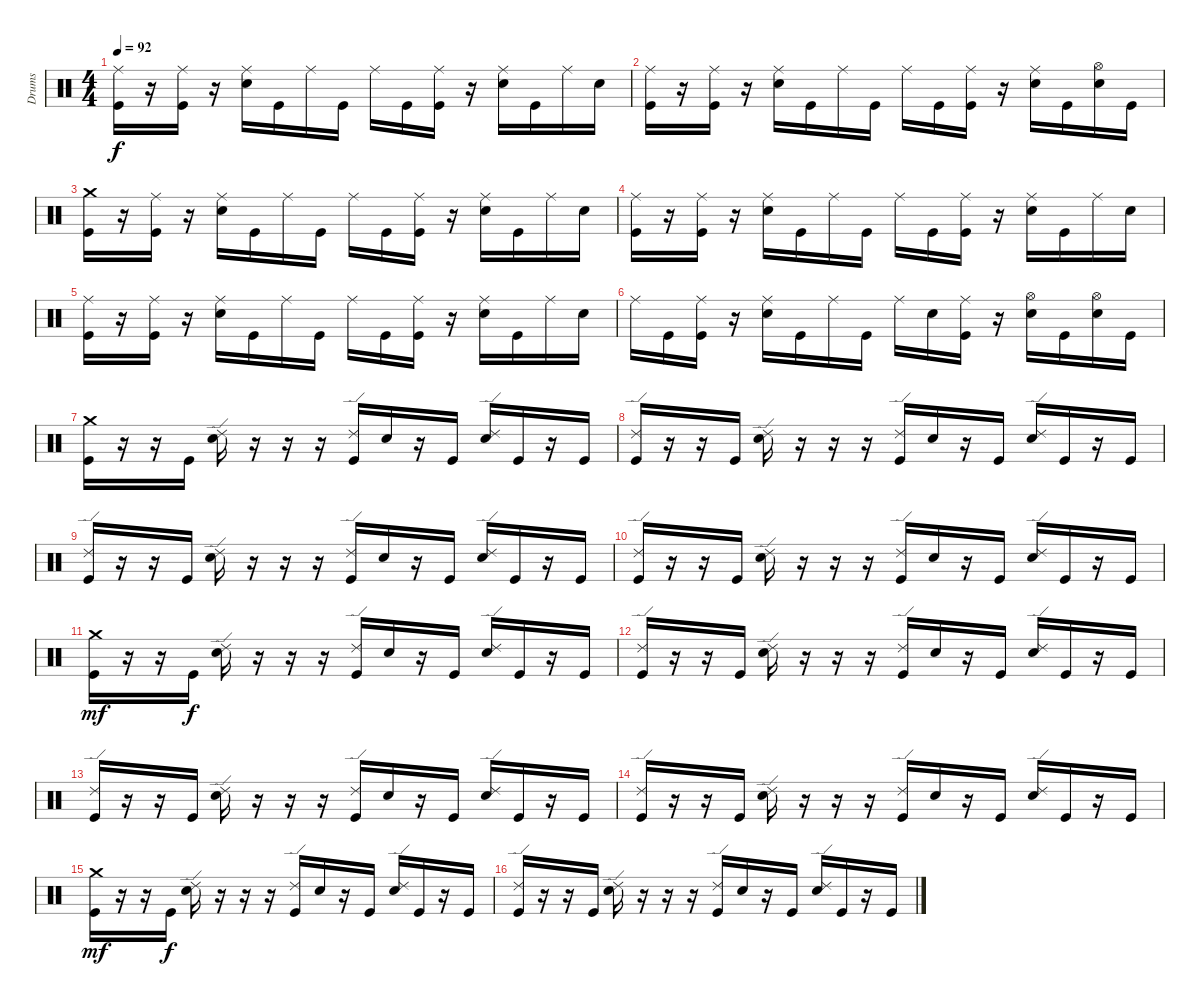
\track ("Drums" "Drums") {instrument percussion}
\staff {score}
\articulation defaults
\ts (4 4)
\tempo 92
\clef neutral
\ks c
("Ride (middle)" "Kick (hit)").16{dy f} r.16 ("Ride (middle)" "Kick (hit)").16 r.16 ("Ride (middle)" "Snare (hit) 2").16 "Kick (hit)".16 "Ride (middle)".16 "Kick (hit)".16 "Ride (middle)".16 "Kick (hit)".16 ("Ride (middle)" "Kick (hit)").16 r.16 ("Ride (middle)" "Snare (hit) 2").16 "Kick (hit)".16 "Ride (middle)".16 "Snare (hit) 2".16 |
("Ride (middle)" "Kick (hit)").16 r.16 ("Ride (middle)" "Kick (hit)").16 r.16 ("Ride (middle)" "Snare (hit) 2").16 "Kick (hit)".16 "Ride (middle)".16 "Kick (hit)".16 "Ride (middle)".16 "Kick (hit)".16 ("Ride (middle)" "Kick (hit)").16 r.16 ("Ride (middle)" "Snare (hit) 2").16 "Kick (hit)".16 ("Hi-Hat (open)" "Snare (hit) 2").16 "Kick (hit)".16 |
("Crash medium (hit)" "Kick (hit)").16 r.16 ("Ride (middle)" "Kick (hit)").16 r.16 ("Ride (middle)" "Snare (hit) 2").16 "Kick (hit)".16 "Ride (middle)".16 "Kick (hit)".16 "Ride (middle)".16 "Kick (hit)".16 ("Ride (middle)" "Kick (hit)").16 r.16 ("Ride (middle)" "Snare (hit) 2").16 "Kick (hit)".16 "Ride (middle)".16 "Snare (hit) 2".16 |
("Ride (middle)" "Kick (hit)").16 r.16 ("Ride (middle)" "Kick (hit)").16 r.16 ("Ride (middle)" "Snare (hit) 2").16 "Kick (hit)".16 "Ride (middle)".16 "Kick (hit)".16 "Ride (middle)".16 "Kick (hit)".16 ("Ride (middle)" "Kick (hit)").16 r.16 ("Ride (middle)" "Snare (hit) 2").16 "Kick (hit)".16 "Ride (middle)".16 "Snare (hit) 2".16 |
("Ride (middle)" "Kick (hit)").16 r.16 ("Ride (middle)" "Kick (hit)").16 r.16 ("Ride (middle)" "Snare (hit) 2").16 "Kick (hit)".16 "Ride (middle)".16 "Kick (hit)".16 "Ride (middle)".16 "Kick (hit)".16 ("Ride (middle)" "Kick (hit)").16 r.16 ("Ride (middle)" "Snare (hit) 2").16 "Kick (hit)".16 "Ride (middle)".16 "Snare (hit) 2".16 |
"Ride (middle)".16 "Kick (hit)".16 ("Ride (middle)" "Kick (hit)").16 r.16 ("Ride (middle)" "Snare (hit) 2").16 "Kick (hit)".16 "Ride (middle)".16 "Kick (hit)".16 "Ride (middle)".16 "Snare (hit) 2".16 ("Ride (middle)" "Kick (hit)").16 r.16 ("Hi-Hat (open)" "Snare (hit) 2").16 "Kick (hit)".16 ("Hi-Hat (open)" "Snare (hit) 2").16 "Kick (hit)".16 |
("Crash medium (hit)" "Kick (hit)").16 r.16 r.16 "Kick (hit)".16 ("Ride (edge) 2" "Snare (hit) 2").16 r.16 r.16 r.16 ("Ride (edge) 2" "Kick (hit)").16 "Snare (hit) 2".16 r.16 "Kick (hit)".16 ("Ride (edge) 2" "Snare (hit) 2").16 "Kick (hit)".16 r.16 "Kick (hit)".16 |
("Ride (edge) 2" "Kick (hit)").16 r.16 r.16 "Kick (hit)".16 ("Ride (edge) 2" "Snare (hit) 2").16 r.16 r.16 r.16 ("Ride (edge) 2" "Kick (hit)").16 "Snare (hit) 2".16 r.16 "Kick (hit)".16 ("Ride (edge) 2" "Snare (hit) 2").16 "Kick (hit)".16 r.16 "Kick (hit)".16 |
("Ride (edge) 2" "Kick (hit)").16 r.16 r.16 "Kick (hit)".16 ("Ride (edge) 2" "Snare (hit) 2").16 r.16 r.16 r.16 ("Ride (edge) 2" "Kick (hit)").16 "Snare (hit) 2".16 r.16 "Kick (hit)".16 ("Ride (edge) 2" "Snare (hit) 2").16 "Kick (hit)".16 r.16 "Kick (hit)".16 |
("Ride (edge) 2" "Kick (hit)").16 r.16 r.16 "Kick (hit)".16 ("Ride (edge) 2" "Snare (hit) 2").16 r.16 r.16 r.16 ("Ride (edge) 2" "Kick (hit)").16 "Snare (hit) 2".16 r.16 "Kick (hit)".16 ("Ride (edge) 2" "Snare (hit) 2").16 "Kick (hit)".16 r.16 "Kick (hit)".16 |
("Crash medium (hit)" "Kick (hit)").16{dy mf} r.16 r.16 "Kick (hit)".16{dy f} ("Ride (edge) 2" "Snare (hit) 2").16 r.16 r.16 r.16 ("Ride (edge) 2" "Kick (hit)").16 "Snare (hit) 2".16 r.16 "Kick (hit)".16 ("Ride (edge) 2" "Snare (hit) 2").16 "Kick (hit)".16 r.16 "Kick (hit)".16 |
("Ride (edge) 2" "Kick (hit)").16 r.16 r.16 "Kick (hit)".16 ("Ride (edge) 2" "Snare (hit) 2").16 r.16 r.16 r.16 ("Ride (edge) 2" "Kick (hit)").16 "Snare (hit) 2".16 r.16 "Kick (hit)".16 ("Ride (edge) 2" "Snare (hit) 2").16 "Kick (hit)".16 r.16 "Kick (hit)".16 |
("Ride (edge) 2" "Kick (hit)").16 r.16 r.16 "Kick (hit)".16 ("Ride (edge) 2" "Snare (hit) 2").16 r.16 r.16 r.16 ("Ride (edge) 2" "Kick (hit)").16 "Snare (hit) 2".16 r.16 "Kick (hit)".16 ("Ride (edge) 2" "Snare (hit) 2").16 "Kick (hit)".16 r.16 "Kick (hit)".16 |
("Ride (edge) 2" "Kick (hit)").16 r.16 r.16 "Kick (hit)".16 ("Ride (edge) 2" "Snare (hit) 2").16 r.16 r.16 r.16 ("Ride (edge) 2" "Kick (hit)").16 "Snare (hit) 2".16 r.16 "Kick (hit)".16 ("Ride (edge) 2" "Snare (hit) 2").16 "Kick (hit)".16 r.16 "Kick (hit)".16 |
("Crash medium (hit)" "Kick (hit)").16{dy mf} r.16 r.16 "Kick (hit)".16{dy f} ("Ride (edge) 2" "Snare (hit) 2").16 r.16 r.16 r.16 ("Ride (edge) 2" "Kick (hit)").16 "Snare (hit) 2".16 r.16 "Kick (hit)".16 ("Ride (edge) 2" "Snare (hit) 2").16 "Kick (hit)".16 r.16 "Kick (hit)".16 |
("Ride (edge) 2" "Kick (hit)").16 r.16 r.16 "Kick (hit)".16 ("Ride (edge) 2" "Snare (hit) 2").16 r.16 r.16 r.16 ("Ride (edge) 2" "Kick (hit)").16 "Snare (hit) 2".16 r.16 "Kick (hit)".16 ("Ride (edge) 2" "Snare (hit) 2").16 "Kick (hit)".16 r.16 "Kick (hit)".16
